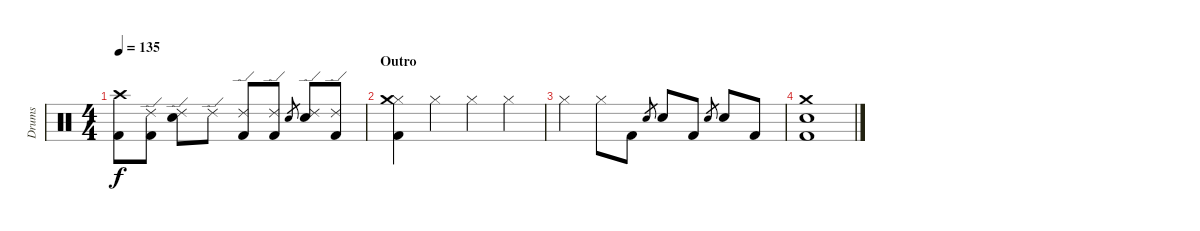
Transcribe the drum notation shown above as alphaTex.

\track ("Drums" "Drums") {instrument percussion}
\staff {score}
\articulation defaults
\ts (4 4)
\tempo 135
\clef neutral
\ks c
("Crash high (hit)" "Kick (hit) 2").8{dy f} ("Ride (edge) 2" "Kick (hit) 2").8 ("Ride (edge) 2" "Snare (hit) 2").8 "Ride (edge) 2".8 ("Ride (edge) 2" "Kick (hit) 2").8 ("Ride (edge) 2" "Kick (hit) 2").8 "Snare (hit) 2".8{gr} ("Ride (edge) 2" "Snare (hit) 2").8 ("Ride (edge) 2" "Kick (hit) 2").8 |
\section ("" "Outro")
("Hi-Hat (closed)" "Crash medium (hit)" "Kick (hit) 2").4 "Hi-Hat (closed)".4 "Hi-Hat (closed)".4 "Hi-Hat (closed)".4 |
"Hi-Hat (closed)".4 "Hi-Hat (closed)".8 "Kick (hit) 2".8 "Snare (hit) 2".8{gr} "Snare (hit) 2".8 "Kick (hit) 2".8 "Snare (hit) 2".8{gr} "Snare (hit) 2".8 "Kick (hit) 2".8 |
("Crash medium (hit)" "Snare (hit) 2" "Kick (hit) 2").1
